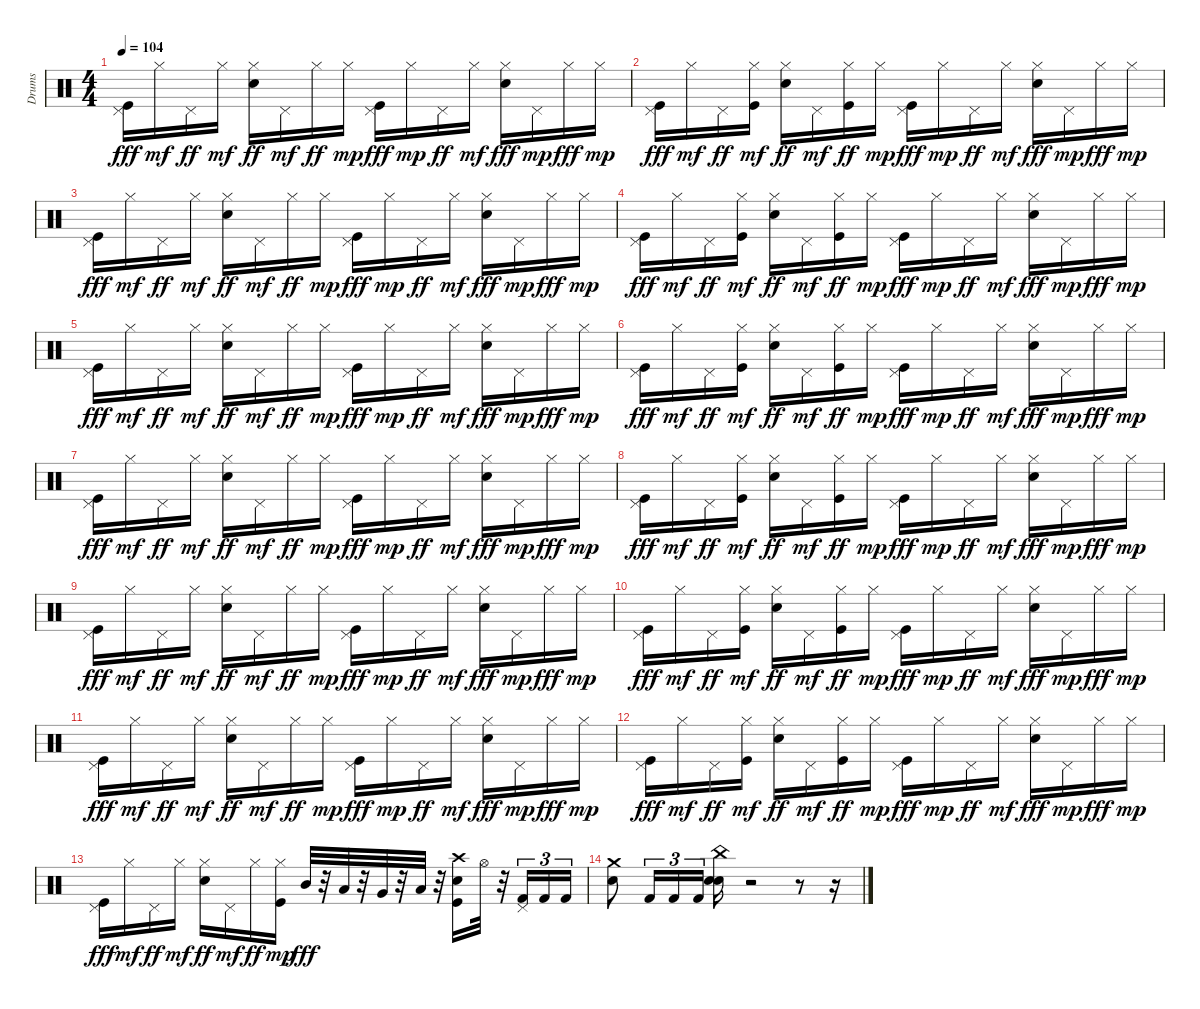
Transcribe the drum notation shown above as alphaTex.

\track ("Drums" "Drums") {instrument percussion}
\staff {score}
\articulation defaults
\ts (4 4)
\tempo 104
\clef neutral
\ks c
("Kick (hit)" "Pedal Hi-Hat (hit)").16{dy fff} "Hi-Hat (closed)".16{dy mf} "Pedal Hi-Hat (hit)".16{dy ff} "Hi-Hat (closed)".16{dy mf} ("Electric Snare (hit)" "Hi-Hat (closed)").16{dy ff} "Pedal Hi-Hat (hit)".16{dy mf} "Hi-Hat (closed)".16{dy ff} "Hi-Hat (closed)".16{dy mp} ("Kick (hit)" "Pedal Hi-Hat (hit)").16{dy fff} "Hi-Hat (closed)".16{dy mp} "Pedal Hi-Hat (hit)".16{dy ff} "Hi-Hat (closed)".16{dy mf} ("Electric Snare (hit)" "Hi-Hat (closed)").16{dy fff} "Pedal Hi-Hat (hit)".16{dy mp} "Hi-Hat (closed)".16{dy fff} "Hi-Hat (closed)".16{dy mp} |
("Kick (hit)" "Pedal Hi-Hat (hit)").16{dy fff} "Hi-Hat (closed)".16{dy mf} "Pedal Hi-Hat (hit)".16{dy ff} ("Kick (hit)" "Hi-Hat (closed)").16{dy mf} ("Electric Snare (hit)" "Hi-Hat (closed)").16{dy ff} "Pedal Hi-Hat (hit)".16{dy mf} ("Kick (hit)" "Hi-Hat (closed)").16{dy ff} "Hi-Hat (closed)".16{dy mp} ("Kick (hit)" "Pedal Hi-Hat (hit)").16{dy fff} "Hi-Hat (closed)".16{dy mp} "Pedal Hi-Hat (hit)".16{dy ff} "Hi-Hat (closed)".16{dy mf} ("Electric Snare (hit)" "Hi-Hat (closed)").16{dy fff} "Pedal Hi-Hat (hit)".16{dy mp} "Hi-Hat (closed)".16{dy fff} "Hi-Hat (closed)".16{dy mp} |
("Kick (hit)" "Pedal Hi-Hat (hit)").16{dy fff} "Hi-Hat (closed)".16{dy mf} "Pedal Hi-Hat (hit)".16{dy ff} "Hi-Hat (closed)".16{dy mf} ("Electric Snare (hit)" "Hi-Hat (closed)").16{dy ff} "Pedal Hi-Hat (hit)".16{dy mf} "Hi-Hat (closed)".16{dy ff} "Hi-Hat (closed)".16{dy mp} ("Kick (hit)" "Pedal Hi-Hat (hit)").16{dy fff} "Hi-Hat (closed)".16{dy mp} "Pedal Hi-Hat (hit)".16{dy ff} "Hi-Hat (closed)".16{dy mf} ("Electric Snare (hit)" "Hi-Hat (closed)").16{dy fff} "Pedal Hi-Hat (hit)".16{dy mp} "Hi-Hat (closed)".16{dy fff} "Hi-Hat (closed)".16{dy mp} |
("Kick (hit)" "Pedal Hi-Hat (hit)").16{dy fff} "Hi-Hat (closed)".16{dy mf} "Pedal Hi-Hat (hit)".16{dy ff} ("Kick (hit)" "Hi-Hat (closed)").16{dy mf} ("Electric Snare (hit)" "Hi-Hat (closed)").16{dy ff} "Pedal Hi-Hat (hit)".16{dy mf} ("Kick (hit)" "Hi-Hat (closed)").16{dy ff} "Hi-Hat (closed)".16{dy mp} ("Kick (hit)" "Pedal Hi-Hat (hit)").16{dy fff} "Hi-Hat (closed)".16{dy mp} "Pedal Hi-Hat (hit)".16{dy ff} "Hi-Hat (closed)".16{dy mf} ("Electric Snare (hit)" "Hi-Hat (closed)").16{dy fff} "Pedal Hi-Hat (hit)".16{dy mp} "Hi-Hat (closed)".16{dy fff} "Hi-Hat (closed)".16{dy mp} |
("Kick (hit)" "Pedal Hi-Hat (hit)").16{dy fff} "Hi-Hat (closed)".16{dy mf} "Pedal Hi-Hat (hit)".16{dy ff} "Hi-Hat (closed)".16{dy mf} ("Electric Snare (hit)" "Hi-Hat (closed)").16{dy ff} "Pedal Hi-Hat (hit)".16{dy mf} "Hi-Hat (closed)".16{dy ff} "Hi-Hat (closed)".16{dy mp} ("Kick (hit)" "Pedal Hi-Hat (hit)").16{dy fff} "Hi-Hat (closed)".16{dy mp} "Pedal Hi-Hat (hit)".16{dy ff} "Hi-Hat (closed)".16{dy mf} ("Electric Snare (hit)" "Hi-Hat (closed)").16{dy fff} "Pedal Hi-Hat (hit)".16{dy mp} "Hi-Hat (closed)".16{dy fff} "Hi-Hat (closed)".16{dy mp} |
("Kick (hit)" "Pedal Hi-Hat (hit)").16{dy fff} "Hi-Hat (closed)".16{dy mf} "Pedal Hi-Hat (hit)".16{dy ff} ("Kick (hit)" "Hi-Hat (closed)").16{dy mf} ("Electric Snare (hit)" "Hi-Hat (closed)").16{dy ff} "Pedal Hi-Hat (hit)".16{dy mf} ("Kick (hit)" "Hi-Hat (closed)").16{dy ff} "Hi-Hat (closed)".16{dy mp} ("Kick (hit)" "Pedal Hi-Hat (hit)").16{dy fff} "Hi-Hat (closed)".16{dy mp} "Pedal Hi-Hat (hit)".16{dy ff} "Hi-Hat (closed)".16{dy mf} ("Electric Snare (hit)" "Hi-Hat (closed)").16{dy fff} "Pedal Hi-Hat (hit)".16{dy mp} "Hi-Hat (closed)".16{dy fff} "Hi-Hat (closed)".16{dy mp} |
("Kick (hit)" "Pedal Hi-Hat (hit)").16{dy fff} "Hi-Hat (closed)".16{dy mf} "Pedal Hi-Hat (hit)".16{dy ff} "Hi-Hat (closed)".16{dy mf} ("Electric Snare (hit)" "Hi-Hat (closed)").16{dy ff} "Pedal Hi-Hat (hit)".16{dy mf} "Hi-Hat (closed)".16{dy ff} "Hi-Hat (closed)".16{dy mp} ("Kick (hit)" "Pedal Hi-Hat (hit)").16{dy fff} "Hi-Hat (closed)".16{dy mp} "Pedal Hi-Hat (hit)".16{dy ff} "Hi-Hat (closed)".16{dy mf} ("Electric Snare (hit)" "Hi-Hat (closed)").16{dy fff} "Pedal Hi-Hat (hit)".16{dy mp} "Hi-Hat (closed)".16{dy fff} "Hi-Hat (closed)".16{dy mp} |
("Kick (hit)" "Pedal Hi-Hat (hit)").16{dy fff} "Hi-Hat (closed)".16{dy mf} "Pedal Hi-Hat (hit)".16{dy ff} ("Kick (hit)" "Hi-Hat (closed)").16{dy mf} ("Electric Snare (hit)" "Hi-Hat (closed)").16{dy ff} "Pedal Hi-Hat (hit)".16{dy mf} ("Kick (hit)" "Hi-Hat (closed)").16{dy ff} "Hi-Hat (closed)".16{dy mp} ("Kick (hit)" "Pedal Hi-Hat (hit)").16{dy fff} "Hi-Hat (closed)".16{dy mp} "Pedal Hi-Hat (hit)".16{dy ff} "Hi-Hat (closed)".16{dy mf} ("Electric Snare (hit)" "Hi-Hat (closed)").16{dy fff} "Pedal Hi-Hat (hit)".16{dy mp} "Hi-Hat (closed)".16{dy fff} "Hi-Hat (closed)".16{dy mp} |
("Kick (hit)" "Pedal Hi-Hat (hit)").16{dy fff} "Hi-Hat (closed)".16{dy mf} "Pedal Hi-Hat (hit)".16{dy ff} "Hi-Hat (closed)".16{dy mf} ("Electric Snare (hit)" "Hi-Hat (closed)").16{dy ff} "Pedal Hi-Hat (hit)".16{dy mf} "Hi-Hat (closed)".16{dy ff} "Hi-Hat (closed)".16{dy mp} ("Kick (hit)" "Pedal Hi-Hat (hit)").16{dy fff} "Hi-Hat (closed)".16{dy mp} "Pedal Hi-Hat (hit)".16{dy ff} "Hi-Hat (closed)".16{dy mf} ("Electric Snare (hit)" "Hi-Hat (closed)").16{dy fff} "Pedal Hi-Hat (hit)".16{dy mp} "Hi-Hat (closed)".16{dy fff} "Hi-Hat (closed)".16{dy mp} |
("Kick (hit)" "Pedal Hi-Hat (hit)").16{dy fff} "Hi-Hat (closed)".16{dy mf} "Pedal Hi-Hat (hit)".16{dy ff} ("Kick (hit)" "Hi-Hat (closed)").16{dy mf} ("Electric Snare (hit)" "Hi-Hat (closed)").16{dy ff} "Pedal Hi-Hat (hit)".16{dy mf} ("Kick (hit)" "Hi-Hat (closed)").16{dy ff} "Hi-Hat (closed)".16{dy mp} ("Kick (hit)" "Pedal Hi-Hat (hit)").16{dy fff} "Hi-Hat (closed)".16{dy mp} "Pedal Hi-Hat (hit)".16{dy ff} "Hi-Hat (closed)".16{dy mf} ("Electric Snare (hit)" "Hi-Hat (closed)").16{dy fff} "Pedal Hi-Hat (hit)".16{dy mp} "Hi-Hat (closed)".16{dy fff} "Hi-Hat (closed)".16{dy mp} |
("Kick (hit)" "Pedal Hi-Hat (hit)").16{dy fff} "Hi-Hat (closed)".16{dy mf} "Pedal Hi-Hat (hit)".16{dy ff} "Hi-Hat (closed)".16{dy mf} ("Electric Snare (hit)" "Hi-Hat (closed)").16{dy ff} "Pedal Hi-Hat (hit)".16{dy mf} "Hi-Hat (closed)".16{dy ff} "Hi-Hat (closed)".16{dy mp} ("Kick (hit)" "Pedal Hi-Hat (hit)").16{dy fff} "Hi-Hat (closed)".16{dy mp} "Pedal Hi-Hat (hit)".16{dy ff} "Hi-Hat (closed)".16{dy mf} ("Electric Snare (hit)" "Hi-Hat (closed)").16{dy fff} "Pedal Hi-Hat (hit)".16{dy mp} "Hi-Hat (closed)".16{dy fff} "Hi-Hat (closed)".16{dy mp} |
("Kick (hit)" "Pedal Hi-Hat (hit)").16{dy fff} "Hi-Hat (closed)".16{dy mf} "Pedal Hi-Hat (hit)".16{dy ff} ("Kick (hit)" "Hi-Hat (closed)").16{dy mf} ("Electric Snare (hit)" "Hi-Hat (closed)").16{dy ff} "Pedal Hi-Hat (hit)".16{dy mf} ("Kick (hit)" "Hi-Hat (closed)").16{dy ff} "Hi-Hat (closed)".16{dy mp} ("Kick (hit)" "Pedal Hi-Hat (hit)").16{dy fff} "Hi-Hat (closed)".16{dy mp} "Pedal Hi-Hat (hit)".16{dy ff} "Hi-Hat (closed)".16{dy mf} ("Electric Snare (hit)" "Hi-Hat (closed)").16{dy fff} "Pedal Hi-Hat (hit)".16{dy mp} "Hi-Hat (closed)".16{dy fff} "Hi-Hat (closed)".16{dy mp} |
("Kick (hit)" "Pedal Hi-Hat (hit)").16{dy fff} "Hi-Hat (closed)".16{dy mf} "Pedal Hi-Hat (hit)".16{dy ff} "Hi-Hat (closed)".16{dy mf} ("Electric Snare (hit)" "Hi-Hat (closed)").16{dy ff} "Pedal Hi-Hat (hit)".16{dy mf} "Hi-Hat (closed)".16{dy ff} ("Kick (hit)" "Hi-Hat (closed)").16{dy mp} "Mid Tom (hit)".32{dy fff} r.32 "Low Tom (hit)".32 r.32 "Very Low Tom (hit)".32 r.32 "Low Floor Tom (hit)".32 r.32 ("Crash high (hit)" "Kick (hit)" "Electric Snare (hit)").16 "Hi-Hat (open)".32 r.32 ("Pedal Hi-Hat (hit)" "Kick (hit) 2").16{tu (3 2)} "Kick (hit) 2".16{tu (3 2)} "Kick (hit) 2".16{tu (3 2)} |
("Crash medium (hit)" "Electric Snare (hit)").8 "Kick (hit) 2".16{tu (3 2)} "Kick (hit) 2".16{tu (3 2)} "Kick (hit) 2".16{tu (3 2)} ("Electric Snare (hit)" "China (hit)" "Electric Snare (hit)").16 r.2 r.8 r.16
